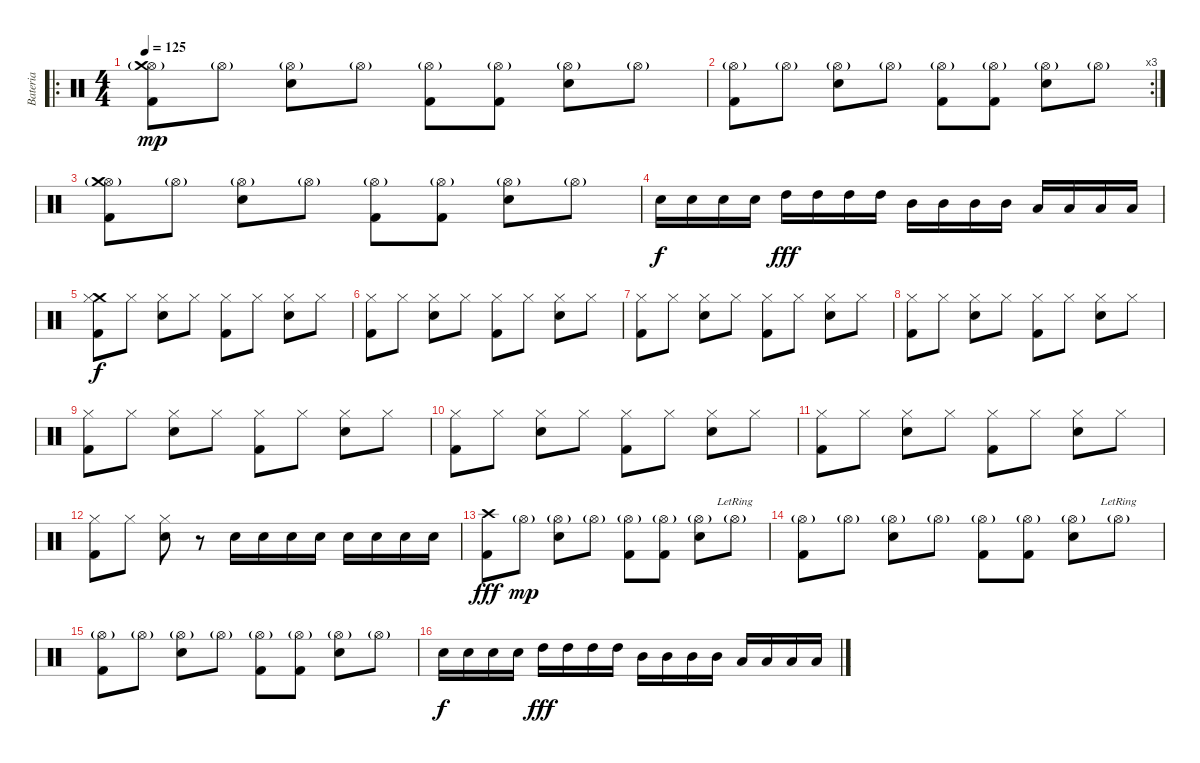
\track ("Bateria" "Bateria") {instrument percussion}
\staff {score}
\articulation defaults
\ro
\ts (4 4)
\tempo 125
\clef neutral
\ks c
("Hi-Hat (open)"{g} "Kick (hit) 2" "Crash medium (hit)").8{dy mp} "Hi-Hat (open)"{g}.8 ("Hi-Hat (open)"{g} "Snare (hit) 2").8 "Hi-Hat (open)"{g}.8 ("Hi-Hat (open)"{g} "Kick (hit) 2").8 ("Hi-Hat (open)"{g} "Kick (hit) 2").8 ("Hi-Hat (open)"{g} "Snare (hit) 2").8 "Hi-Hat (open)"{g}.8 |
\rc 3
("Hi-Hat (open)"{g} "Kick (hit) 2").8 "Hi-Hat (open)"{g}.8 ("Hi-Hat (open)"{g} "Snare (hit) 2").8 "Hi-Hat (open)"{g}.8 ("Hi-Hat (open)"{g} "Kick (hit) 2").8 ("Hi-Hat (open)"{g} "Kick (hit) 2").8 ("Hi-Hat (open)"{g} "Snare (hit) 2").8 "Hi-Hat (open)"{g}.8 |
("Hi-Hat (open)"{g} "Kick (hit) 2" "Crash medium (hit)").8 "Hi-Hat (open)"{g}.8 ("Hi-Hat (open)"{g} "Snare (hit) 2").8 "Hi-Hat (open)"{g}.8 ("Hi-Hat (open)"{g} "Kick (hit) 2").8 ("Hi-Hat (open)"{g} "Kick (hit) 2").8 ("Hi-Hat (open)"{g} "Snare (hit) 2").8 "Hi-Hat (open)"{g}.8 |
"Snare (hit) 2".16{dy f} "Snare (hit) 2".16 "Snare (hit) 2".16 "Snare (hit) 2".16 "High Tom (hit)".16{dy fff} "High Tom (hit)".16 "High Tom (hit)".16 "High Tom (hit)".16 "Mid Tom (hit)".16 "Mid Tom (hit)".16 "Mid Tom (hit)".16 "Mid Tom (hit)".16 "Low Tom (hit)".16 "Low Tom (hit)".16 "Low Tom (hit)".16 "Low Tom (hit)".16 |
("Kick (hit) 2" "Crash medium (hit)" "Hi-Hat (closed)").8{dy f} "Hi-Hat (closed)".8 ("Snare (hit) 2" "Hi-Hat (closed)").8 "Hi-Hat (closed)".8 ("Kick (hit) 2" "Hi-Hat (closed)").8 "Hi-Hat (closed)".8 ("Snare (hit) 2" "Hi-Hat (closed)").8 "Hi-Hat (closed)".8 |
("Kick (hit) 2" "Hi-Hat (closed)").8 "Hi-Hat (closed)".8 ("Snare (hit) 2" "Hi-Hat (closed)").8 "Hi-Hat (closed)".8 ("Kick (hit) 2" "Hi-Hat (closed)").8 "Hi-Hat (closed)".8 ("Snare (hit) 2" "Hi-Hat (closed)").8 "Hi-Hat (closed)".8 |
("Kick (hit) 2" "Hi-Hat (closed)").8 "Hi-Hat (closed)".8 ("Snare (hit) 2" "Hi-Hat (closed)").8 "Hi-Hat (closed)".8 ("Kick (hit) 2" "Hi-Hat (closed)").8 "Hi-Hat (closed)".8 ("Snare (hit) 2" "Hi-Hat (closed)").8 "Hi-Hat (closed)".8 |
("Kick (hit) 2" "Hi-Hat (closed)").8 "Hi-Hat (closed)".8 ("Snare (hit) 2" "Hi-Hat (closed)").8 "Hi-Hat (closed)".8 ("Kick (hit) 2" "Hi-Hat (closed)").8 "Hi-Hat (closed)".8 ("Snare (hit) 2" "Hi-Hat (closed)").8 "Hi-Hat (closed)".8 |
("Kick (hit) 2" "Hi-Hat (closed)").8 "Hi-Hat (closed)".8 ("Snare (hit) 2" "Hi-Hat (closed)").8 "Hi-Hat (closed)".8 ("Kick (hit) 2" "Hi-Hat (closed)").8 "Hi-Hat (closed)".8 ("Snare (hit) 2" "Hi-Hat (closed)").8 "Hi-Hat (closed)".8 |
("Kick (hit) 2" "Hi-Hat (closed)").8 "Hi-Hat (closed)".8 ("Snare (hit) 2" "Hi-Hat (closed)").8 "Hi-Hat (closed)".8 ("Kick (hit) 2" "Hi-Hat (closed)").8 "Hi-Hat (closed)".8 ("Snare (hit) 2" "Hi-Hat (closed)").8 "Hi-Hat (closed)".8 |
("Kick (hit) 2" "Hi-Hat (closed)").8 "Hi-Hat (closed)".8 ("Snare (hit) 2" "Hi-Hat (closed)").8 "Hi-Hat (closed)".8 ("Kick (hit) 2" "Hi-Hat (closed)").8 "Hi-Hat (closed)".8 ("Snare (hit) 2" "Hi-Hat (closed)").8 "Hi-Hat (closed)".8 |
("Hi-Hat (closed)" "Kick (hit) 2").8 "Hi-Hat (closed)".8 ("Snare (hit) 2" "Hi-Hat (closed)").8 r.8 "Snare (hit) 2".16 "Snare (hit) 2".16 "Snare (hit) 2".16 "Snare (hit) 2".16 "Snare (hit) 2".16 "Snare (hit) 2".16 "Snare (hit) 2".16 "Snare (hit) 2".16 |
("Crash high (hit)" "Kick (hit) 2").8{dy fff} "Hi-Hat (open)"{g}.8{dy mp} ("Hi-Hat (open)"{g} "Snare (hit) 2").8 "Hi-Hat (open)"{g}.8 ("Hi-Hat (open)"{g} "Kick (hit) 2").8 ("Hi-Hat (open)"{g} "Kick (hit) 2").8 ("Hi-Hat (open)"{g} "Snare (hit) 2").8 "Hi-Hat (open)"{g lr}.8 |
("Hi-Hat (open)"{g} "Kick (hit) 2").8 "Hi-Hat (open)"{g}.8 ("Hi-Hat (open)"{g} "Snare (hit) 2").8 "Hi-Hat (open)"{g}.8 ("Hi-Hat (open)"{g} "Kick (hit) 2").8 ("Hi-Hat (open)"{g} "Kick (hit) 2").8 ("Hi-Hat (open)"{g} "Snare (hit) 2").8 "Hi-Hat (open)"{g lr}.8 |
("Hi-Hat (open)"{g} "Kick (hit) 2").8 "Hi-Hat (open)"{g}.8 ("Hi-Hat (open)"{g} "Snare (hit) 2").8 "Hi-Hat (open)"{g}.8 ("Hi-Hat (open)"{g} "Kick (hit) 2").8 ("Hi-Hat (open)"{g} "Kick (hit) 2").8 ("Hi-Hat (open)"{g} "Snare (hit) 2").8 "Hi-Hat (open)"{g}.8 |
"Snare (hit) 2".16{dy f} "Snare (hit) 2".16 "Snare (hit) 2".16 "Snare (hit) 2".16 "High Tom (hit)".16{dy fff} "High Tom (hit)".16 "High Tom (hit)".16 "High Tom (hit)".16 "Mid Tom (hit)".16 "Mid Tom (hit)".16 "Mid Tom (hit)".16 "Mid Tom (hit)".16 "Low Tom (hit)".16 "Low Tom (hit)".16 "Low Tom (hit)".16 "Low Tom (hit)".16
